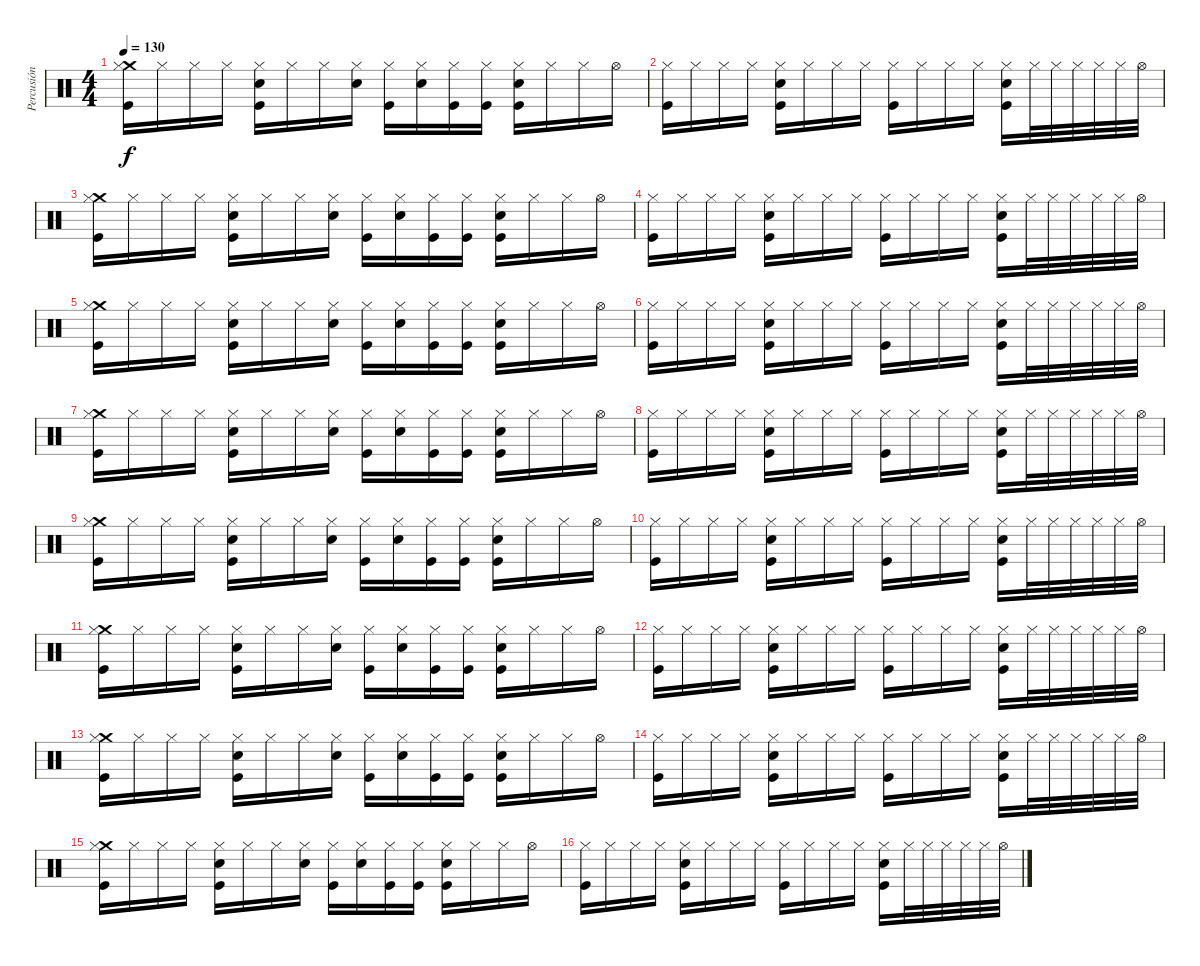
\track ("Percusión" "Percusión") {instrument percussion}
\staff {score}
\articulation defaults
\ts (4 4)
\tempo 130
\clef neutral
\ks c
("Kick (hit)" "Crash medium (hit)" "Hi-Hat (closed)").16{dy f} "Hi-Hat (closed)".16 "Hi-Hat (closed)".16 "Hi-Hat (closed)".16 ("Kick (hit)" "Snare (hit) 2" "Hi-Hat (closed)").16 "Hi-Hat (closed)".16 "Hi-Hat (closed)".16 ("Snare (hit) 2" "Hi-Hat (closed)").16 ("Kick (hit)" "Hi-Hat (closed)").16 ("Snare (hit) 2" "Hi-Hat (closed)").16 ("Kick (hit)" "Hi-Hat (closed)").16 ("Kick (hit)" "Hi-Hat (closed)").16 ("Kick (hit)" "Snare (hit) 2" "Hi-Hat (closed)").16 "Hi-Hat (closed)".16 "Hi-Hat (closed)".16 "Hi-Hat (open)".16 |
("Kick (hit)" "Hi-Hat (closed)").16 "Hi-Hat (closed)".16 "Hi-Hat (closed)".16 "Hi-Hat (closed)".16 ("Kick (hit)" "Snare (hit) 2" "Hi-Hat (closed)").16 "Hi-Hat (closed)".16 "Hi-Hat (closed)".16 "Hi-Hat (closed)".16 ("Kick (hit)" "Hi-Hat (closed)").16 "Hi-Hat (closed)".16 "Hi-Hat (closed)".16 "Hi-Hat (closed)".16 ("Kick (hit)" "Snare (hit) 2" "Hi-Hat (closed)").16 "Hi-Hat (closed)".32 "Hi-Hat (closed)".32 "Hi-Hat (closed)".32 "Hi-Hat (closed)".32 "Hi-Hat (closed)".32 "Hi-Hat (open)".32 |
("Kick (hit)" "Crash medium (hit)" "Hi-Hat (closed)").16 "Hi-Hat (closed)".16 "Hi-Hat (closed)".16 "Hi-Hat (closed)".16 ("Kick (hit)" "Snare (hit) 2" "Hi-Hat (closed)").16 "Hi-Hat (closed)".16 "Hi-Hat (closed)".16 ("Snare (hit) 2" "Hi-Hat (closed)").16 ("Kick (hit)" "Hi-Hat (closed)").16 ("Snare (hit) 2" "Hi-Hat (closed)").16 ("Kick (hit)" "Hi-Hat (closed)").16 ("Kick (hit)" "Hi-Hat (closed)").16 ("Kick (hit)" "Snare (hit) 2" "Hi-Hat (closed)").16 "Hi-Hat (closed)".16 "Hi-Hat (closed)".16 "Hi-Hat (open)".16 |
("Kick (hit)" "Hi-Hat (closed)").16 "Hi-Hat (closed)".16 "Hi-Hat (closed)".16 "Hi-Hat (closed)".16 ("Kick (hit)" "Snare (hit) 2" "Hi-Hat (closed)").16 "Hi-Hat (closed)".16 "Hi-Hat (closed)".16 "Hi-Hat (closed)".16 ("Kick (hit)" "Hi-Hat (closed)").16 "Hi-Hat (closed)".16 "Hi-Hat (closed)".16 "Hi-Hat (closed)".16 ("Kick (hit)" "Snare (hit) 2" "Hi-Hat (closed)").16 "Hi-Hat (closed)".32 "Hi-Hat (closed)".32 "Hi-Hat (closed)".32 "Hi-Hat (closed)".32 "Hi-Hat (closed)".32 "Hi-Hat (open)".32 |
("Kick (hit)" "Crash medium (hit)" "Hi-Hat (closed)").16 "Hi-Hat (closed)".16 "Hi-Hat (closed)".16 "Hi-Hat (closed)".16 ("Kick (hit)" "Snare (hit) 2" "Hi-Hat (closed)").16 "Hi-Hat (closed)".16 "Hi-Hat (closed)".16 ("Snare (hit) 2" "Hi-Hat (closed)").16 ("Kick (hit)" "Hi-Hat (closed)").16 ("Snare (hit) 2" "Hi-Hat (closed)").16 ("Kick (hit)" "Hi-Hat (closed)").16 ("Kick (hit)" "Hi-Hat (closed)").16 ("Kick (hit)" "Snare (hit) 2" "Hi-Hat (closed)").16 "Hi-Hat (closed)".16 "Hi-Hat (closed)".16 "Hi-Hat (open)".16 |
("Kick (hit)" "Hi-Hat (closed)").16 "Hi-Hat (closed)".16 "Hi-Hat (closed)".16 "Hi-Hat (closed)".16 ("Kick (hit)" "Snare (hit) 2" "Hi-Hat (closed)").16 "Hi-Hat (closed)".16 "Hi-Hat (closed)".16 "Hi-Hat (closed)".16 ("Kick (hit)" "Hi-Hat (closed)").16 "Hi-Hat (closed)".16 "Hi-Hat (closed)".16 "Hi-Hat (closed)".16 ("Kick (hit)" "Snare (hit) 2" "Hi-Hat (closed)").16 "Hi-Hat (closed)".32 "Hi-Hat (closed)".32 "Hi-Hat (closed)".32 "Hi-Hat (closed)".32 "Hi-Hat (closed)".32 "Hi-Hat (open)".32 |
("Kick (hit)" "Crash medium (hit)" "Hi-Hat (closed)").16 "Hi-Hat (closed)".16 "Hi-Hat (closed)".16 "Hi-Hat (closed)".16 ("Kick (hit)" "Snare (hit) 2" "Hi-Hat (closed)").16 "Hi-Hat (closed)".16 "Hi-Hat (closed)".16 ("Snare (hit) 2" "Hi-Hat (closed)").16 ("Kick (hit)" "Hi-Hat (closed)").16 ("Snare (hit) 2" "Hi-Hat (closed)").16 ("Kick (hit)" "Hi-Hat (closed)").16 ("Kick (hit)" "Hi-Hat (closed)").16 ("Kick (hit)" "Snare (hit) 2" "Hi-Hat (closed)").16 "Hi-Hat (closed)".16 "Hi-Hat (closed)".16 "Hi-Hat (open)".16 |
("Kick (hit)" "Hi-Hat (closed)").16 "Hi-Hat (closed)".16 "Hi-Hat (closed)".16 "Hi-Hat (closed)".16 ("Kick (hit)" "Snare (hit) 2" "Hi-Hat (closed)").16 "Hi-Hat (closed)".16 "Hi-Hat (closed)".16 "Hi-Hat (closed)".16 ("Kick (hit)" "Hi-Hat (closed)").16 "Hi-Hat (closed)".16 "Hi-Hat (closed)".16 "Hi-Hat (closed)".16 ("Kick (hit)" "Snare (hit) 2" "Hi-Hat (closed)").16 "Hi-Hat (closed)".32 "Hi-Hat (closed)".32 "Hi-Hat (closed)".32 "Hi-Hat (closed)".32 "Hi-Hat (closed)".32 "Hi-Hat (open)".32 |
("Kick (hit)" "Crash medium (hit)" "Hi-Hat (closed)").16 "Hi-Hat (closed)".16 "Hi-Hat (closed)".16 "Hi-Hat (closed)".16 ("Kick (hit)" "Snare (hit) 2" "Hi-Hat (closed)").16 "Hi-Hat (closed)".16 "Hi-Hat (closed)".16 ("Snare (hit) 2" "Hi-Hat (closed)").16 ("Kick (hit)" "Hi-Hat (closed)").16 ("Snare (hit) 2" "Hi-Hat (closed)").16 ("Kick (hit)" "Hi-Hat (closed)").16 ("Kick (hit)" "Hi-Hat (closed)").16 ("Kick (hit)" "Snare (hit) 2" "Hi-Hat (closed)").16 "Hi-Hat (closed)".16 "Hi-Hat (closed)".16 "Hi-Hat (open)".16 |
("Kick (hit)" "Hi-Hat (closed)").16 "Hi-Hat (closed)".16 "Hi-Hat (closed)".16 "Hi-Hat (closed)".16 ("Kick (hit)" "Snare (hit) 2" "Hi-Hat (closed)").16 "Hi-Hat (closed)".16 "Hi-Hat (closed)".16 "Hi-Hat (closed)".16 ("Kick (hit)" "Hi-Hat (closed)").16 "Hi-Hat (closed)".16 "Hi-Hat (closed)".16 "Hi-Hat (closed)".16 ("Kick (hit)" "Snare (hit) 2" "Hi-Hat (closed)").16 "Hi-Hat (closed)".32 "Hi-Hat (closed)".32 "Hi-Hat (closed)".32 "Hi-Hat (closed)".32 "Hi-Hat (closed)".32 "Hi-Hat (open)".32 |
("Kick (hit)" "Crash medium (hit)" "Hi-Hat (closed)").16 "Hi-Hat (closed)".16 "Hi-Hat (closed)".16 "Hi-Hat (closed)".16 ("Kick (hit)" "Snare (hit) 2" "Hi-Hat (closed)").16 "Hi-Hat (closed)".16 "Hi-Hat (closed)".16 ("Snare (hit) 2" "Hi-Hat (closed)").16 ("Kick (hit)" "Hi-Hat (closed)").16 ("Snare (hit) 2" "Hi-Hat (closed)").16 ("Kick (hit)" "Hi-Hat (closed)").16 ("Kick (hit)" "Hi-Hat (closed)").16 ("Kick (hit)" "Snare (hit) 2" "Hi-Hat (closed)").16 "Hi-Hat (closed)".16 "Hi-Hat (closed)".16 "Hi-Hat (open)".16 |
("Kick (hit)" "Hi-Hat (closed)").16 "Hi-Hat (closed)".16 "Hi-Hat (closed)".16 "Hi-Hat (closed)".16 ("Kick (hit)" "Snare (hit) 2" "Hi-Hat (closed)").16 "Hi-Hat (closed)".16 "Hi-Hat (closed)".16 "Hi-Hat (closed)".16 ("Kick (hit)" "Hi-Hat (closed)").16 "Hi-Hat (closed)".16 "Hi-Hat (closed)".16 "Hi-Hat (closed)".16 ("Kick (hit)" "Snare (hit) 2" "Hi-Hat (closed)").16 "Hi-Hat (closed)".32 "Hi-Hat (closed)".32 "Hi-Hat (closed)".32 "Hi-Hat (closed)".32 "Hi-Hat (closed)".32 "Hi-Hat (open)".32 |
("Kick (hit)" "Crash medium (hit)" "Hi-Hat (closed)").16 "Hi-Hat (closed)".16 "Hi-Hat (closed)".16 "Hi-Hat (closed)".16 ("Kick (hit)" "Snare (hit) 2" "Hi-Hat (closed)").16 "Hi-Hat (closed)".16 "Hi-Hat (closed)".16 ("Snare (hit) 2" "Hi-Hat (closed)").16 ("Kick (hit)" "Hi-Hat (closed)").16 ("Snare (hit) 2" "Hi-Hat (closed)").16 ("Kick (hit)" "Hi-Hat (closed)").16 ("Kick (hit)" "Hi-Hat (closed)").16 ("Kick (hit)" "Snare (hit) 2" "Hi-Hat (closed)").16 "Hi-Hat (closed)".16 "Hi-Hat (closed)".16 "Hi-Hat (open)".16 |
("Kick (hit)" "Hi-Hat (closed)").16 "Hi-Hat (closed)".16 "Hi-Hat (closed)".16 "Hi-Hat (closed)".16 ("Kick (hit)" "Snare (hit) 2" "Hi-Hat (closed)").16 "Hi-Hat (closed)".16 "Hi-Hat (closed)".16 "Hi-Hat (closed)".16 ("Kick (hit)" "Hi-Hat (closed)").16 "Hi-Hat (closed)".16 "Hi-Hat (closed)".16 "Hi-Hat (closed)".16 ("Kick (hit)" "Snare (hit) 2" "Hi-Hat (closed)").16 "Hi-Hat (closed)".32 "Hi-Hat (closed)".32 "Hi-Hat (closed)".32 "Hi-Hat (closed)".32 "Hi-Hat (closed)".32 "Hi-Hat (open)".32 |
("Kick (hit)" "Crash medium (hit)" "Hi-Hat (closed)").16 "Hi-Hat (closed)".16 "Hi-Hat (closed)".16 "Hi-Hat (closed)".16 ("Kick (hit)" "Snare (hit) 2" "Hi-Hat (closed)").16 "Hi-Hat (closed)".16 "Hi-Hat (closed)".16 ("Snare (hit) 2" "Hi-Hat (closed)").16 ("Kick (hit)" "Hi-Hat (closed)").16 ("Snare (hit) 2" "Hi-Hat (closed)").16 ("Kick (hit)" "Hi-Hat (closed)").16 ("Kick (hit)" "Hi-Hat (closed)").16 ("Kick (hit)" "Snare (hit) 2" "Hi-Hat (closed)").16 "Hi-Hat (closed)".16 "Hi-Hat (closed)".16 "Hi-Hat (open)".16 |
("Kick (hit)" "Hi-Hat (closed)").16 "Hi-Hat (closed)".16 "Hi-Hat (closed)".16 "Hi-Hat (closed)".16 ("Kick (hit)" "Snare (hit) 2" "Hi-Hat (closed)").16 "Hi-Hat (closed)".16 "Hi-Hat (closed)".16 "Hi-Hat (closed)".16 ("Kick (hit)" "Hi-Hat (closed)").16 "Hi-Hat (closed)".16 "Hi-Hat (closed)".16 "Hi-Hat (closed)".16 ("Kick (hit)" "Snare (hit) 2" "Hi-Hat (closed)").16 "Hi-Hat (closed)".32 "Hi-Hat (closed)".32 "Hi-Hat (closed)".32 "Hi-Hat (closed)".32 "Hi-Hat (closed)".32 "Hi-Hat (open)".32
